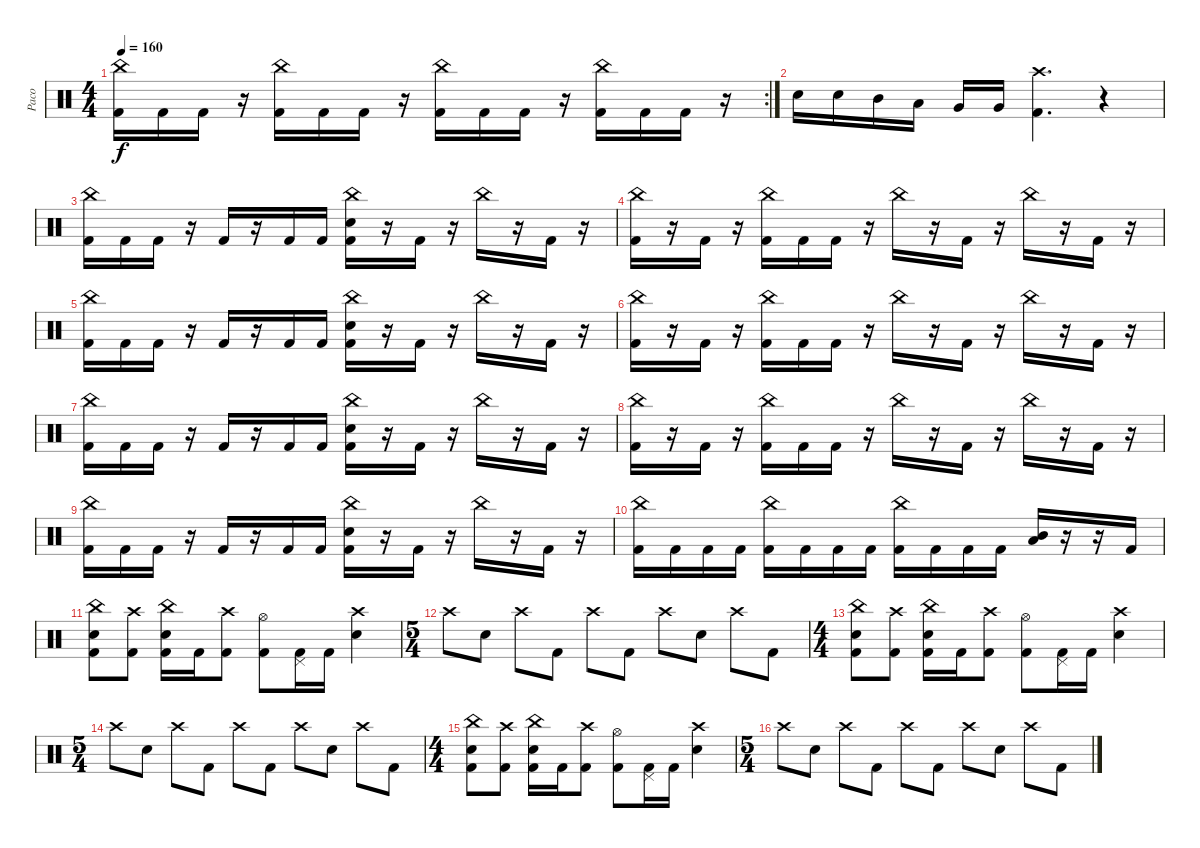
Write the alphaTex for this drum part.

\track ("Paco" "Paco") {instrument percussion}
\staff {score}
\articulation defaults
\rc 2
\ts (4 4)
\tempo 160
\clef neutral
\ks c
("China (hit)" "Kick (hit) 2").16{dy f} "Kick (hit) 2".16 "Kick (hit) 2".16 r.16 ("China (hit)" "Kick (hit) 2").16 "Kick (hit) 2".16 "Kick (hit) 2".16 r.16 ("China (hit)" "Kick (hit) 2").16 "Kick (hit) 2".16 "Kick (hit) 2".16 r.16 ("China (hit)" "Kick (hit) 2").16 "Kick (hit) 2".16 "Kick (hit) 2".16 r.16 |
"Electric Snare (hit)".16 "Electric Snare (hit)".16 "Mid Tom (hit)".16 "Low Tom (hit)".16 "Very Low Tom (hit)".16 "Very Low Tom (hit)".16 ("Crash high (hit)" "Kick (hit) 2").4{d} r.4 |
("China (hit)" "Kick (hit) 2").16 "Kick (hit) 2".16 "Kick (hit) 2".16 r.16 "Kick (hit) 2".16 r.16 "Kick (hit) 2".16 "Kick (hit) 2".16 ("China (hit)" "Electric Snare (hit)" "Kick (hit) 2").16 r.16 "Kick (hit) 2".16 r.16 "China (hit)".16 r.16 "Kick (hit) 2".16 r.16 |
("China (hit)" "Kick (hit) 2").16 r.16 "Kick (hit) 2".16 r.16 ("China (hit)" "Kick (hit) 2").16 "Kick (hit) 2".16 "Kick (hit) 2".16 r.16 "China (hit)".16 r.16 "Kick (hit) 2".16 r.16 "China (hit)".16 r.16 "Kick (hit) 2".16 r.16 |
("China (hit)" "Kick (hit) 2").16 "Kick (hit) 2".16 "Kick (hit) 2".16 r.16 "Kick (hit) 2".16 r.16 "Kick (hit) 2".16 "Kick (hit) 2".16 ("China (hit)" "Electric Snare (hit)" "Kick (hit) 2").16 r.16 "Kick (hit) 2".16 r.16 "China (hit)".16 r.16 "Kick (hit) 2".16 r.16 |
("China (hit)" "Kick (hit) 2").16 r.16 "Kick (hit) 2".16 r.16 ("China (hit)" "Kick (hit) 2").16 "Kick (hit) 2".16 "Kick (hit) 2".16 r.16 "China (hit)".16 r.16 "Kick (hit) 2".16 r.16 "China (hit)".16 r.16 "Kick (hit) 2".16 r.16 |
("China (hit)" "Kick (hit) 2").16 "Kick (hit) 2".16 "Kick (hit) 2".16 r.16 "Kick (hit) 2".16 r.16 "Kick (hit) 2".16 "Kick (hit) 2".16 ("China (hit)" "Electric Snare (hit)" "Kick (hit) 2").16 r.16 "Kick (hit) 2".16 r.16 "China (hit)".16 r.16 "Kick (hit) 2".16 r.16 |
("China (hit)" "Kick (hit) 2").16 r.16 "Kick (hit) 2".16 r.16 ("China (hit)" "Kick (hit) 2").16 "Kick (hit) 2".16 "Kick (hit) 2".16 r.16 "China (hit)".16 r.16 "Kick (hit) 2".16 r.16 "China (hit)".16 r.16 "Kick (hit) 2".16 r.16 |
("China (hit)" "Kick (hit) 2").16 "Kick (hit) 2".16 "Kick (hit) 2".16 r.16 "Kick (hit) 2".16 r.16 "Kick (hit) 2".16 "Kick (hit) 2".16 ("China (hit)" "Electric Snare (hit)" "Kick (hit) 2").16 r.16 "Kick (hit) 2".16 r.16 "China (hit)".16 r.16 "Kick (hit) 2".16 r.16 |
("China (hit)" "Kick (hit) 2").16 "Kick (hit) 2".16 "Kick (hit) 2".16 "Kick (hit) 2".16 ("China (hit)" "Kick (hit) 2").16 "Kick (hit) 2".16 "Kick (hit) 2".16 "Kick (hit) 2".16 ("China (hit)" "Kick (hit) 2").16 "Kick (hit) 2".16 "Kick (hit) 2".16 "Kick (hit) 2".16 ("Low Tom (hit)" "Mid Tom (hit)").16 r.16 r.16 "Kick (hit) 2".16 |
("China (hit)" "Electric Snare (hit)" "Kick (hit) 2").8 ("Crash high (hit)" "Kick (hit) 2").8 ("China (hit)" "Electric Snare (hit)" "Kick (hit) 2").16 "Kick (hit) 2".16 ("Crash high (hit)" "Kick (hit) 2").8 ("Hi-Hat (open)" "Kick (hit) 2").8 ("Pedal Hi-Hat (hit)" "Kick (hit) 2").16 "Kick (hit) 2".16 ("Crash high (hit)" "Electric Snare (hit)").4 |
\ts (5 4)
"Crash high (hit)".8 "Electric Snare (hit)".8 "Crash high (hit)".8 "Kick (hit) 2".8 "Crash high (hit)".8 "Kick (hit) 2".8 "Crash high (hit)".8 "Electric Snare (hit)".8 "Crash high (hit)".8 "Kick (hit) 2".8 |
\ts (4 4)
("China (hit)" "Electric Snare (hit)" "Kick (hit) 2").8 ("Crash high (hit)" "Kick (hit) 2").8 ("China (hit)" "Electric Snare (hit)" "Kick (hit) 2").16 "Kick (hit) 2".16 ("Crash high (hit)" "Kick (hit) 2").8 ("Hi-Hat (open)" "Kick (hit) 2").8 ("Pedal Hi-Hat (hit)" "Kick (hit) 2").16 "Kick (hit) 2".16 ("Crash high (hit)" "Electric Snare (hit)").4 |
\ts (5 4)
"Crash high (hit)".8 "Electric Snare (hit)".8 "Crash high (hit)".8 "Kick (hit) 2".8 "Crash high (hit)".8 "Kick (hit) 2".8 "Crash high (hit)".8 "Electric Snare (hit)".8 "Crash high (hit)".8 "Kick (hit) 2".8 |
\ts (4 4)
("China (hit)" "Electric Snare (hit)" "Kick (hit) 2").8 ("Crash high (hit)" "Kick (hit) 2").8 ("China (hit)" "Electric Snare (hit)" "Kick (hit) 2").16 "Kick (hit) 2".16 ("Crash high (hit)" "Kick (hit) 2").8 ("Hi-Hat (open)" "Kick (hit) 2").8 ("Pedal Hi-Hat (hit)" "Kick (hit) 2").16 "Kick (hit) 2".16 ("Crash high (hit)" "Electric Snare (hit)").4 |
\ts (5 4)
"Crash high (hit)".8 "Electric Snare (hit)".8 "Crash high (hit)".8 "Kick (hit) 2".8 "Crash high (hit)".8 "Kick (hit) 2".8 "Crash high (hit)".8 "Electric Snare (hit)".8 "Crash high (hit)".8 "Kick (hit) 2".8
